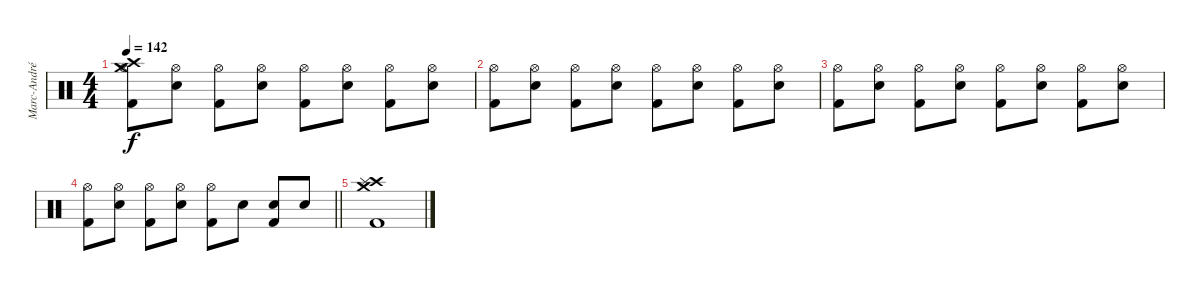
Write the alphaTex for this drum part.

\track ("Marc-André Barabé" "Marc-André") {instrument percussion}
\staff {score}
\articulation defaults
\ts (4 4)
\tempo 142
\clef neutral
\ks c
("Crash high (hit)" "Crash medium (hit)" "Hi-Hat (open)" "Kick (hit) 2").8{dy f} ("Hi-Hat (open)" "Electric Snare (hit)").8 ("Hi-Hat (open)" "Kick (hit) 2"{tr (2 32)}).8 ("Hi-Hat (open)" "Electric Snare (hit)").8 ("Hi-Hat (open)" "Kick (hit) 2").8 ("Hi-Hat (open)" "Electric Snare (hit)").8 ("Hi-Hat (open)" "Kick (hit) 2"{tr (2 32)}).8 ("Hi-Hat (open)" "Electric Snare (hit)").8 |
("Hi-Hat (open)" "Kick (hit) 2").8 ("Hi-Hat (open)" "Electric Snare (hit)").8 ("Hi-Hat (open)" "Kick (hit) 2"{tr (2 32)}).8 ("Hi-Hat (open)" "Electric Snare (hit)").8 ("Hi-Hat (open)" "Kick (hit) 2").8 ("Hi-Hat (open)" "Electric Snare (hit)").8 ("Hi-Hat (open)" "Kick (hit) 2"{tr (2 32)}).8 ("Hi-Hat (open)" "Electric Snare (hit)").8 |
("Hi-Hat (open)" "Kick (hit) 2").8 ("Hi-Hat (open)" "Electric Snare (hit)").8 ("Hi-Hat (open)" "Kick (hit) 2"{tr (2 32)}).8 ("Hi-Hat (open)" "Electric Snare (hit)").8 ("Hi-Hat (open)" "Kick (hit) 2").8 ("Hi-Hat (open)" "Electric Snare (hit)").8 ("Hi-Hat (open)" "Kick (hit) 2"{tr (2 32)}).8 ("Hi-Hat (open)" "Electric Snare (hit)").8 |
\barLineRight lightlight
("Hi-Hat (open)" "Kick (hit) 2").8 ("Hi-Hat (open)" "Electric Snare (hit)").8 ("Hi-Hat (open)" "Kick (hit) 2"{tr (2 32)}).8 ("Hi-Hat (open)" "Electric Snare (hit)").8 ("Hi-Hat (open)" "Kick (hit) 2").8 "Electric Snare (hit)".8 ("Electric Snare (hit)"{tr (4 32)} "Kick (hit) 2"{tr (2 32)}).8 "Electric Snare (hit)"{tr (4 32)}.8 |
("Crash high (hit)" "Crash medium (hit)" "Splash (hit)" "Kick (hit) 2").1
